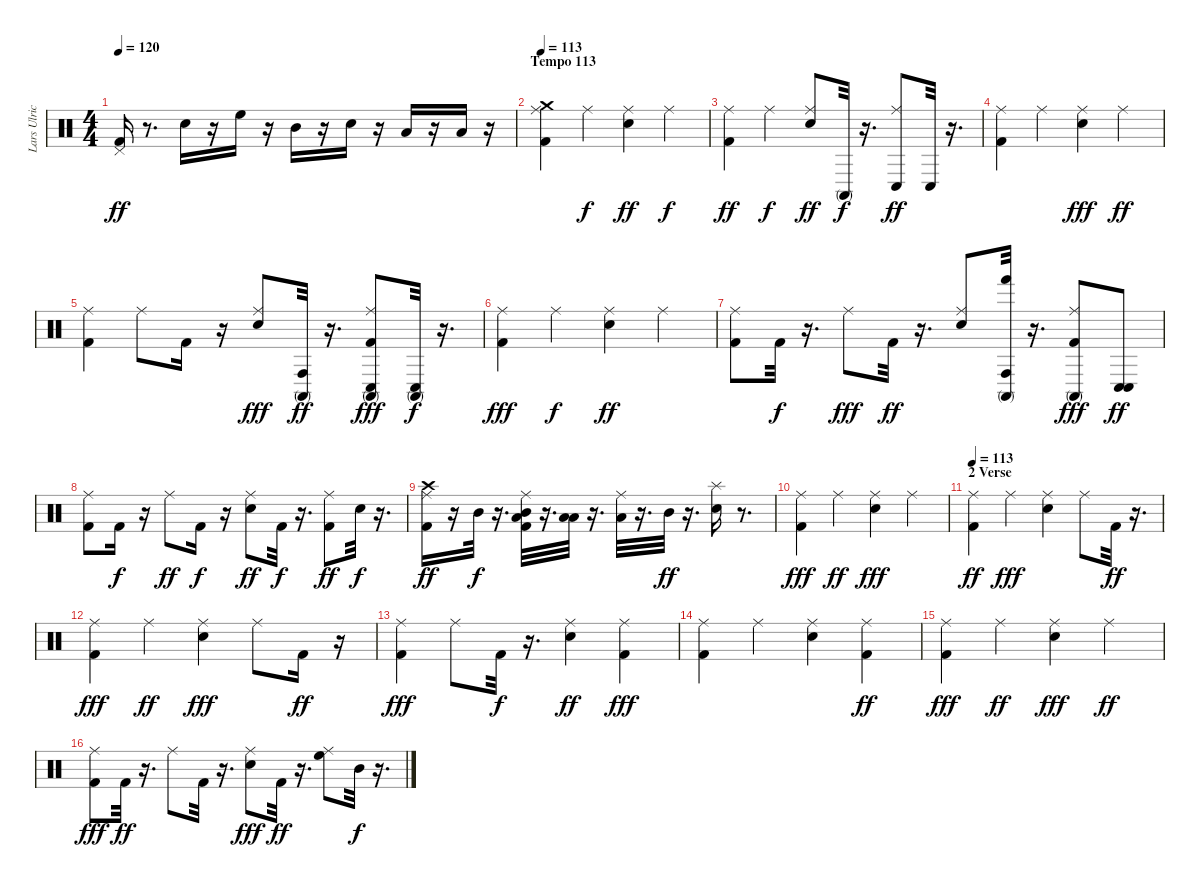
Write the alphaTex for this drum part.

\track ("Lars Ulrich" "Lars Ulric") {instrument percussion}
\staff {score}
\articulation defaults
\ts (4 4)
\tempo 120
\clef neutral
\ks c
("Pedal Hi-Hat (hit)" "Kick (hit) 2").16{dy ff} r.8{d} "Snare (hit) 2".16 r.16 "High Floor Tom (hit)".16 r.16 "Mid Tom (hit)".16 r.16 "Snare (hit) 2".16 r.16 "Low Tom (hit)".16 r.16 "Low Floor Tom (hit)".16 r.16 |
\section ("" "Tempo 113")
\tempo 113
("Kick (hit) 2" "Ride (middle)" "Crash medium (hit)").4 "Ride (middle)".4{dy f} ("Snare (hit) 2" "Ride (middle)").4{dy ff} "Ride (middle)".4{dy f} |
("Kick (hit) 2" "Ride (middle)").4{dy ff} "Ride (middle)".4{dy f} ("Snare (hit) 2" "Ride (middle)").8{dy ff} "Conga high (mute)".32{dy f} r.16{d} ("Conga low (hit)" "Ride (middle)").8{dy ff} "Conga low (hit)".32 r.16{d} |
("Kick (hit) 2" "Ride (middle)").4 "Ride (middle)".4 ("Snare (hit) 2" "Ride (middle)").4{dy fff} "Ride (middle)".4{dy ff} |
("Kick (hit) 2" "Ride (middle)").4 "Ride (middle)".8 "Kick (hit) 2".16 r.16 ("Snare (hit) 2" "Ride (middle)").8{dy fff} ("Conga high (mute)" "Conga high (hit)").32{dy ff} r.16{d} ("Conga high (mute)" "Conga low (hit)" "Kick (hit) 2" "Ride (middle)").8{dy fff} ("Conga high (mute)" "Conga low (hit)").32{dy f} r.16{d} |
("Kick (hit) 2" "Ride (middle)").4{dy fff} "Ride (middle)".4{dy f} ("Ride (middle)" "Snare (hit) 2").4{dy ff} "Ride (middle)".4 |
("Kick (hit) 2" "Ride (middle)").8 "Kick (hit) 2".32{dy f} r.16{d} "Ride (middle)".8{dy fff} "Kick (hit) 2".32{dy ff} r.16{d} ("Snare (hit) 2" "Ride (middle)").8 ("Conga high (mute)" "Hand (hit)" "Conga high (hit)").32 r.16{d} ("Conga high (mute)" "Kick (hit) 2" "Ride (middle)").8{dy fff} ("Conga low (hit)" "Conga low (hit)").8{dy ff} |
("Kick (hit) 2" "Ride (middle)").8 "Kick (hit) 2".16{dy f} r.16 "Ride (middle)".8{dy ff} "Kick (hit) 2".16{dy f} r.16 ("Snare (hit) 2" "Ride (middle)").8{dy ff} "Kick (hit) 2".32{dy f} r.16{d} ("Kick (hit) 2" "Ride (middle)").8{dy ff} "Snare (hit) 2".32{dy f} r.16{d} |
("Crash high (hit)" "Ride (middle)" "Kick (hit) 2").16{dy ff} r.16 "Mid Tom (hit)".32{dy f} r.16{d} ("Ride (middle)" "Low Tom (hit)" "Mid Tom (hit)" "Kick (hit) 2").32 r.16{d} ("Low Floor Tom (hit)" "Low Tom (hit)").32 r.16{d} ("Low Tom (hit)" "Ride (middle)").32 r.16{d} "Mid Tom (hit)".32{dy ff} r.16{d} ("Splash (hit)" "Snare (hit) 2").16 r.8{d} |
("Kick (hit) 2" "Ride (middle)").4{dy fff} "Ride (middle)".4{dy ff} ("Snare (hit) 2" "Ride (middle)").4{dy fff} "Ride (middle)".4 |
\section ("" "2 Verse")
\tempo 113
("Kick (hit) 2" "Ride (middle)").4{dy ff} "Ride (middle)".4{dy fff} ("Snare (hit) 2" "Ride (middle)").4 "Ride (middle)".8 "Kick (hit) 2".32{dy ff} r.16{d} |
("Kick (hit) 2" "Ride (middle)").4{dy fff} "Ride (middle)".4{dy ff} ("Snare (hit) 2" "Ride (middle)").4{dy fff} "Ride (middle)".8 "Kick (hit) 2".16{dy ff} r.16 |
("Kick (hit) 2" "Ride (middle)").4{dy fff} "Ride (middle)".8 "Kick (hit) 2".32{dy f} r.16{d} ("Snare (hit) 2" "Ride (middle)").4{dy ff} ("Kick (hit) 2" "Ride (middle)").4{dy fff} |
("Kick (hit) 2" "Ride (middle)").4 "Ride (middle)".4 ("Snare (hit) 2" "Ride (middle)").4 ("Kick (hit) 2" "Ride (middle)").4{dy ff} |
("Kick (hit) 2" "Ride (middle)").4{dy fff} "Ride (middle)".4{dy ff} ("Snare (hit) 2" "Ride (middle)").4{dy fff} "Ride (middle)".4{dy ff} |
("Kick (hit) 2" "Ride (middle)").8{dy fff} "Kick (hit) 2".32{dy ff} r.16{d} "Ride (middle)".8 "Kick (hit) 2".32 r.16{d} ("Snare (hit) 2" "Ride (middle)").8{dy fff} "Kick (hit) 2".32{dy ff} r.16{d} ("High Floor Tom (hit)" "Ride (middle)").8 "Mid Tom (hit)".32{dy f} r.16{d}
